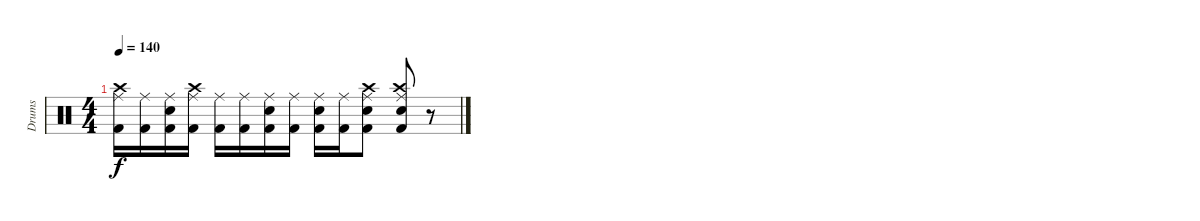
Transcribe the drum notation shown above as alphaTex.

\track ("Drums" "Drums") {instrument percussion}
\staff {score}
\articulation defaults
\ts (4 4)
\tempo 140
\clef neutral
\ks c
("Kick (hit) 2" "Crash high (hit)" "Ride (middle)").16{dy f} ("Kick (hit) 2" "Ride (middle)").16 ("Kick (hit) 2" "Snare (hit) 2" "Ride (middle)").16 ("Kick (hit) 2" "Crash high (hit)" "Ride (middle)").16 ("Kick (hit) 2" "Ride (middle)").16 ("Kick (hit) 2" "Ride (middle)").16 ("Kick (hit) 2" "Snare (hit) 2" "Ride (middle)").16 ("Kick (hit) 2" "Ride (middle)").16 ("Kick (hit) 2" "Snare (hit) 2" "Ride (middle)").16 ("Kick (hit) 2" "Ride (middle)").16 ("Kick (hit) 2" "Snare (hit) 2" "Crash high (hit)" "Ride (middle)").8 ("Kick (hit) 2" "Snare (hit) 2" "Crash high (hit)" "Ride (middle)").8 r.8
